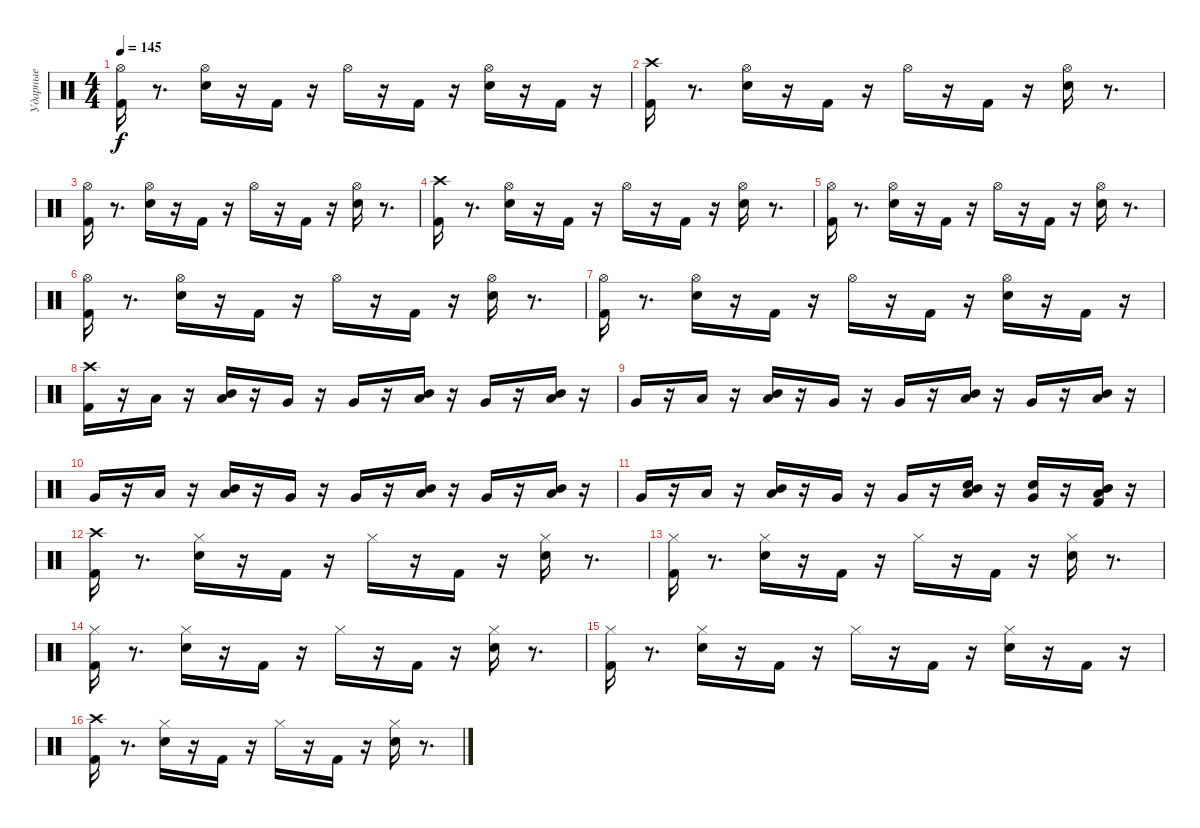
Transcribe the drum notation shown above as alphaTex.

\track ("Ударные" "Ударные") {instrument percussion}
\staff {score}
\articulation defaults
\ts (4 4)
\tempo 145
\clef neutral
\ks c
("Hi-Hat (open)" "Kick (hit) 2").16{dy f} r.8{d} ("Electric Snare (hit)" "Hi-Hat (open)").16 r.16 "Kick (hit) 2".16 r.16 "Hi-Hat (open)".16 r.16 "Kick (hit) 2".16 r.16 ("Electric Snare (hit)" "Hi-Hat (open)").16 r.16 "Kick (hit) 2".16 r.16 |
("Crash high (hit)" "Kick (hit) 2").16 r.8{d} ("Electric Snare (hit)" "Hi-Hat (open)").16 r.16 "Kick (hit) 2".16 r.16 "Hi-Hat (open)".16 r.16 "Kick (hit) 2".16 r.16 ("Hi-Hat (open)" "Electric Snare (hit)").16 r.8{d} |
("Kick (hit) 2" "Hi-Hat (open)").16 r.8{d} ("Electric Snare (hit)" "Hi-Hat (open)").16 r.16 "Kick (hit) 2".16 r.16 "Hi-Hat (open)".16 r.16 "Kick (hit) 2".16 r.16 ("Electric Snare (hit)" "Hi-Hat (open)").16 r.8{d} |
("Kick (hit) 2" "Crash high (hit)").16 r.8{d} ("Hi-Hat (open)" "Electric Snare (hit)").16 r.16 "Kick (hit) 2".16 r.16 "Hi-Hat (open)".16 r.16 "Kick (hit) 2".16 r.16 ("Electric Snare (hit)" "Hi-Hat (open)").16 r.8{d} |
("Kick (hit) 2" "Hi-Hat (open)").16 r.8{d} ("Hi-Hat (open)" "Electric Snare (hit)").16 r.16 "Kick (hit) 2".16 r.16 "Hi-Hat (open)".16 r.16 "Kick (hit) 2".16 r.16 ("Electric Snare (hit)" "Hi-Hat (open)").16 r.8{d} |
("Kick (hit) 2" "Hi-Hat (open)").16 r.8{d} ("Hi-Hat (open)" "Electric Snare (hit)").16 r.16 "Kick (hit) 2".16 r.16 "Hi-Hat (open)".16 r.16 "Kick (hit) 2".16 r.16 ("Hi-Hat (open)" "Electric Snare (hit)").16 r.8{d} |
("Hi-Hat (open)" "Kick (hit) 2").16 r.8{d} ("Electric Snare (hit)" "Hi-Hat (open)").16 r.16 "Kick (hit) 2".16 r.16 "Hi-Hat (open)".16 r.16 "Kick (hit) 2".16 r.16 ("Electric Snare (hit)" "Hi-Hat (open)").16 r.16 "Kick (hit) 2".16 r.16 |
("Kick (hit) 2" "Crash high (hit)").16 r.16 "Low Tom (hit)".16 r.16 ("Low Tom (hit)" "Mid Tom (hit)").16 r.16 "Very Low Tom (hit)".16 r.16 "Very Low Tom (hit)".16 r.16 ("Low Tom (hit)" "Mid Tom (hit)").16 r.16 "Very Low Tom (hit)".16 r.16 ("Low Tom (hit)" "Mid Tom (hit)").16 r.16 |
"Very Low Tom (hit)".16 r.16 "Low Tom (hit)".16 r.16 ("Low Tom (hit)" "Mid Tom (hit)").16 r.16 "Very Low Tom (hit)".16 r.16 "Very Low Tom (hit)".16 r.16 ("Low Tom (hit)" "Mid Tom (hit)").16 r.16 "Very Low Tom (hit)".16 r.16 ("Low Tom (hit)" "Mid Tom (hit)").16 r.16 |
"Very Low Tom (hit)".16 r.16 "Low Tom (hit)".16 r.16 ("Low Tom (hit)" "Mid Tom (hit)").16 r.16 "Very Low Tom (hit)".16 r.16 "Very Low Tom (hit)".16 r.16 ("Low Tom (hit)" "Mid Tom (hit)").16 r.16 "Very Low Tom (hit)".16 r.16 ("Low Tom (hit)" "Mid Tom (hit)").16 r.16 |
"Very Low Tom (hit)".16 r.16 "Low Tom (hit)".16 r.16 ("Low Tom (hit)" "Mid Tom (hit)").16 r.16 "Very Low Tom (hit)".16 r.16 "Very Low Tom (hit)".16 r.16 ("Electric Snare (hit)" "Low Tom (hit)" "Mid Tom (hit)").16 r.16 ("Very Low Tom (hit)" "Electric Snare (hit)").16 r.16 ("Low Tom (hit)" "Kick (hit) 2" "Mid Tom (hit)").16 r.16 |
("Kick (hit) 2" "Crash high (hit)").16 r.8{d} ("Electric Snare (hit)" "Hi-Hat (closed)").16 r.16 "Kick (hit) 2".16 r.16 "Hi-Hat (closed)".16 r.16 "Kick (hit) 2".16 r.16 ("Electric Snare (hit)" "Hi-Hat (closed)").16 r.8{d} |
("Hi-Hat (closed)" "Kick (hit) 2").16 r.8{d} ("Hi-Hat (closed)" "Electric Snare (hit)").16 r.16 "Kick (hit) 2".16 r.16 "Hi-Hat (closed)".16 r.16 "Kick (hit) 2".16 r.16 ("Electric Snare (hit)" "Hi-Hat (closed)").16 r.8{d} |
("Kick (hit) 2" "Hi-Hat (closed)").16 r.8{d} ("Hi-Hat (closed)" "Electric Snare (hit)").16 r.16 "Kick (hit) 2".16 r.16 "Hi-Hat (closed)".16 r.16 "Kick (hit) 2".16 r.16 ("Hi-Hat (closed)" "Electric Snare (hit)").16 r.8{d} |
("Kick (hit) 2" "Hi-Hat (closed)").16 r.8{d} ("Electric Snare (hit)" "Hi-Hat (closed)").16 r.16 "Kick (hit) 2".16 r.16 "Hi-Hat (closed)".16 r.16 "Kick (hit) 2".16 r.16 ("Electric Snare (hit)" "Hi-Hat (closed)").16 r.16 "Kick (hit) 2".16 r.16 |
("Crash high (hit)" "Kick (hit) 2").16 r.8{d} ("Electric Snare (hit)" "Hi-Hat (closed)").16 r.16 "Kick (hit) 2".16 r.16 "Hi-Hat (closed)".16 r.16 "Kick (hit) 2".16 r.16 ("Electric Snare (hit)" "Hi-Hat (closed)").16 r.8{d}
